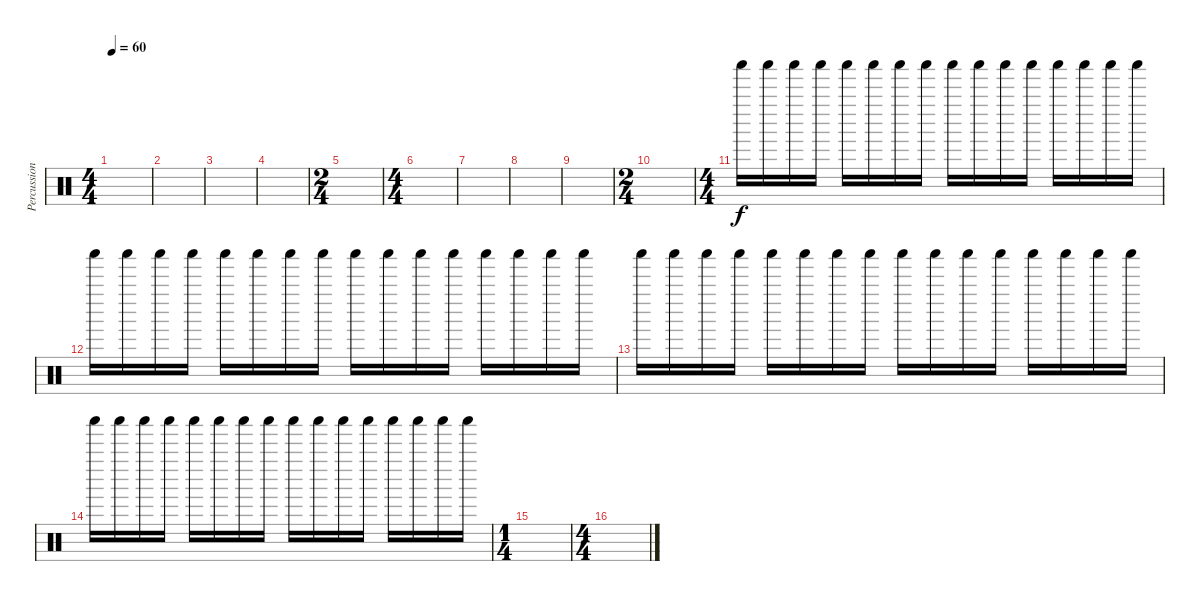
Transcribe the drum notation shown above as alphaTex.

\track ("Percussions" "Percussion") {instrument percussion}
\staff {score}
\articulation defaults
\ts (4 4)
\tempo 60
\clef neutral
\ks c
|
|
|
|
\ts (2 4)
|
\ts (4 4)
\section ("" "")
|
|
|
|
\ts (2 4)
|
\ts (4 4)
\section ("" "")
"Shaker (hit)".16 "Shaker (hit)".16 "Shaker (hit)".16 "Shaker (hit)".16 "Shaker (hit)".16 "Shaker (hit)".16 "Shaker (hit)".16 "Shaker (hit)".16 "Shaker (hit)".16 "Shaker (hit)".16 "Shaker (hit)".16 "Shaker (hit)".16 "Shaker (hit)".16 "Shaker (hit)".16 "Shaker (hit)".16 "Shaker (hit)".16 |
"Shaker (hit)".16 "Shaker (hit)".16 "Shaker (hit)".16 "Shaker (hit)".16 "Shaker (hit)".16 "Shaker (hit)".16 "Shaker (hit)".16 "Shaker (hit)".16 "Shaker (hit)".16 "Shaker (hit)".16 "Shaker (hit)".16 "Shaker (hit)".16 "Shaker (hit)".16 "Shaker (hit)".16 "Shaker (hit)".16 "Shaker (hit)".16 |
"Shaker (hit)".16 "Shaker (hit)".16 "Shaker (hit)".16 "Shaker (hit)".16 "Shaker (hit)".16 "Shaker (hit)".16 "Shaker (hit)".16 "Shaker (hit)".16 "Shaker (hit)".16 "Shaker (hit)".16 "Shaker (hit)".16 "Shaker (hit)".16 "Shaker (hit)".16 "Shaker (hit)".16 "Shaker (hit)".16 "Shaker (hit)".16 |
"Shaker (hit)".16 "Shaker (hit)".16 "Shaker (hit)".16 "Shaker (hit)".16 "Shaker (hit)".16 "Shaker (hit)".16 "Shaker (hit)".16 "Shaker (hit)".16 "Shaker (hit)".16 "Shaker (hit)".16 "Shaker (hit)".16 "Shaker (hit)".16 "Shaker (hit)".16 "Shaker (hit)".16 "Shaker (hit)".16 "Shaker (hit)".16 |
\ts (1 4)
|
\ts (4 4)
\section ("" "")
